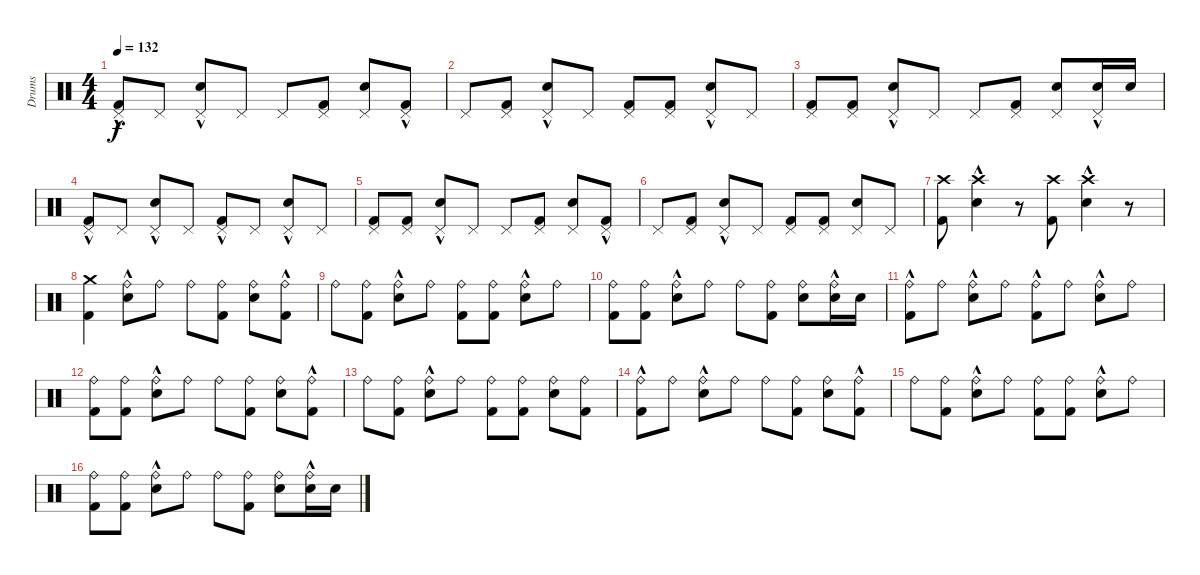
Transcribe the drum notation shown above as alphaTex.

\track ("Drums" "Drums") {instrument percussion}
\staff {score}
\articulation defaults
\ts (4 4)
\tempo 132
\clef neutral
\ks c
("Pedal Hi-Hat (hit)"{hac} "Kick (hit) 2").8{dy f} "Pedal Hi-Hat (hit)".8 ("Pedal Hi-Hat (hit)"{hac} "Snare (hit) 2").8 "Pedal Hi-Hat (hit)".8 "Pedal Hi-Hat (hit)".8 ("Pedal Hi-Hat (hit)" "Kick (hit) 2").8 ("Pedal Hi-Hat (hit)" "Snare (hit) 2").8 ("Pedal Hi-Hat (hit)"{hac} "Kick (hit) 2"{hac}).8 |
"Pedal Hi-Hat (hit)".8 ("Pedal Hi-Hat (hit)" "Kick (hit) 2").8 ("Pedal Hi-Hat (hit)"{hac} "Snare (hit) 2").8 "Pedal Hi-Hat (hit)".8 ("Pedal Hi-Hat (hit)" "Kick (hit) 2").8 ("Pedal Hi-Hat (hit)" "Kick (hit) 2").8 ("Pedal Hi-Hat (hit)"{hac} "Snare (hit) 2").8 "Pedal Hi-Hat (hit)".8 |
("Pedal Hi-Hat (hit)" "Kick (hit) 2").8 ("Pedal Hi-Hat (hit)" "Kick (hit) 2").8 ("Pedal Hi-Hat (hit)"{hac} "Snare (hit) 2").8 "Pedal Hi-Hat (hit)".8 "Pedal Hi-Hat (hit)".8 ("Pedal Hi-Hat (hit)" "Kick (hit) 2").8 ("Pedal Hi-Hat (hit)" "Snare (hit) 2").8 ("Pedal Hi-Hat (hit)"{hac} "Snare (hit) 2").16 "Snare (hit) 2".16 |
("Pedal Hi-Hat (hit)"{hac} "Kick (hit) 2").8 "Pedal Hi-Hat (hit)".8 ("Pedal Hi-Hat (hit)"{hac} "Snare (hit) 2").8 "Pedal Hi-Hat (hit)".8 ("Pedal Hi-Hat (hit)"{hac} "Kick (hit) 2").8 "Pedal Hi-Hat (hit)".8 ("Pedal Hi-Hat (hit)"{hac} "Snare (hit) 2").8 "Pedal Hi-Hat (hit)".8 |
("Pedal Hi-Hat (hit)" "Kick (hit) 2").8 ("Pedal Hi-Hat (hit)" "Kick (hit) 2").8 ("Pedal Hi-Hat (hit)"{hac} "Snare (hit) 2").8 "Pedal Hi-Hat (hit)".8 "Pedal Hi-Hat (hit)".8 ("Pedal Hi-Hat (hit)" "Kick (hit) 2").8 ("Pedal Hi-Hat (hit)" "Snare (hit) 2").8 ("Pedal Hi-Hat (hit)"{hac} "Kick (hit) 2"{hac}).8 |
"Pedal Hi-Hat (hit)".8 ("Pedal Hi-Hat (hit)" "Kick (hit) 2").8 ("Pedal Hi-Hat (hit)"{hac} "Snare (hit) 2").8 "Pedal Hi-Hat (hit)".8 ("Pedal Hi-Hat (hit)" "Kick (hit) 2").8 ("Pedal Hi-Hat (hit)" "Kick (hit) 2").8 ("Pedal Hi-Hat (hit)" "Snare (hit) 2").8 "Pedal Hi-Hat (hit)".8 |
("Crash high (hit)" "Kick (hit) 2").8 ("Crash high (hit)"{hac} "Snare (hit) 2").4 r.8 ("Crash high (hit)" "Kick (hit) 2").8 ("Crash high (hit)"{hac} "Snare (hit) 2").4 r.8 |
("Crash medium (hit)" "Kick (hit) 2").4 ("Ride (bell)"{hac} "Snare (hit) 2").8 "Ride (bell)".8 "Ride (bell)".8 ("Ride (bell)" "Kick (hit) 2").8 ("Ride (bell)" "Snare (hit) 2").8 ("Ride (bell)"{hac} "Kick (hit) 2"{hac}).8 |
"Ride (bell)".8 ("Ride (bell)" "Kick (hit) 2").8 ("Ride (bell)"{hac} "Snare (hit) 2").8 "Ride (bell)".8 ("Ride (bell)" "Kick (hit) 2").8 ("Ride (bell)" "Kick (hit) 2").8 ("Ride (bell)"{hac} "Snare (hit) 2").8 "Ride (bell)".8 |
("Ride (bell)" "Kick (hit) 2").8 ("Ride (bell)" "Kick (hit) 2").8 ("Ride (bell)"{hac} "Snare (hit) 2").8 "Ride (bell)".8 "Ride (bell)".8 ("Ride (bell)" "Kick (hit) 2").8 ("Ride (bell)" "Snare (hit) 2").8 ("Ride (bell)"{hac} "Snare (hit) 2").16 "Snare (hit) 2".16 |
("Ride (bell)"{hac} "Kick (hit) 2").8 "Ride (bell)".8 ("Ride (bell)"{hac} "Snare (hit) 2").8 "Ride (bell)".8 ("Ride (bell)"{hac} "Kick (hit) 2").8 "Ride (bell)".8 ("Ride (bell)"{hac} "Snare (hit) 2").8 "Ride (bell)".8 |
("Ride (bell)" "Kick (hit) 2").8 ("Ride (bell)" "Kick (hit) 2").8 ("Ride (bell)"{hac} "Snare (hit) 2").8 "Ride (bell)".8 "Ride (bell)".8 ("Ride (bell)" "Kick (hit) 2").8 ("Ride (bell)" "Snare (hit) 2").8 ("Ride (bell)"{hac} "Kick (hit) 2"{hac}).8 |
"Ride (bell)".8 ("Ride (bell)" "Kick (hit) 2").8 ("Ride (bell)"{hac} "Snare (hit) 2").8 "Ride (bell)".8 ("Ride (bell)" "Kick (hit) 2").8 ("Ride (bell)" "Kick (hit) 2").8 ("Ride (bell)" "Snare (hit) 2").8 ("Ride (bell)" "Kick (hit) 2").8 |
("Ride (bell)"{hac} "Kick (hit) 2").8 "Ride (bell)".8 ("Ride (bell)"{hac} "Snare (hit) 2").8 "Ride (bell)".8 "Ride (bell)".8 ("Ride (bell)" "Kick (hit) 2").8 ("Ride (bell)" "Snare (hit) 2").8 ("Ride (bell)"{hac} "Kick (hit) 2"{hac}).8 |
"Ride (bell)".8 ("Ride (bell)" "Kick (hit) 2").8 ("Ride (bell)"{hac} "Snare (hit) 2").8 "Ride (bell)".8 ("Ride (bell)" "Kick (hit) 2").8 ("Ride (bell)" "Kick (hit) 2").8 ("Ride (bell)"{hac} "Snare (hit) 2").8 "Ride (bell)".8 |
("Ride (bell)" "Kick (hit) 2").8 ("Ride (bell)" "Kick (hit) 2").8 ("Ride (bell)"{hac} "Snare (hit) 2").8 "Ride (bell)".8 "Ride (bell)".8 ("Ride (bell)" "Kick (hit) 2").8 ("Ride (bell)" "Snare (hit) 2").8 ("Ride (bell)"{hac} "Snare (hit) 2").16 "Snare (hit) 2".16
